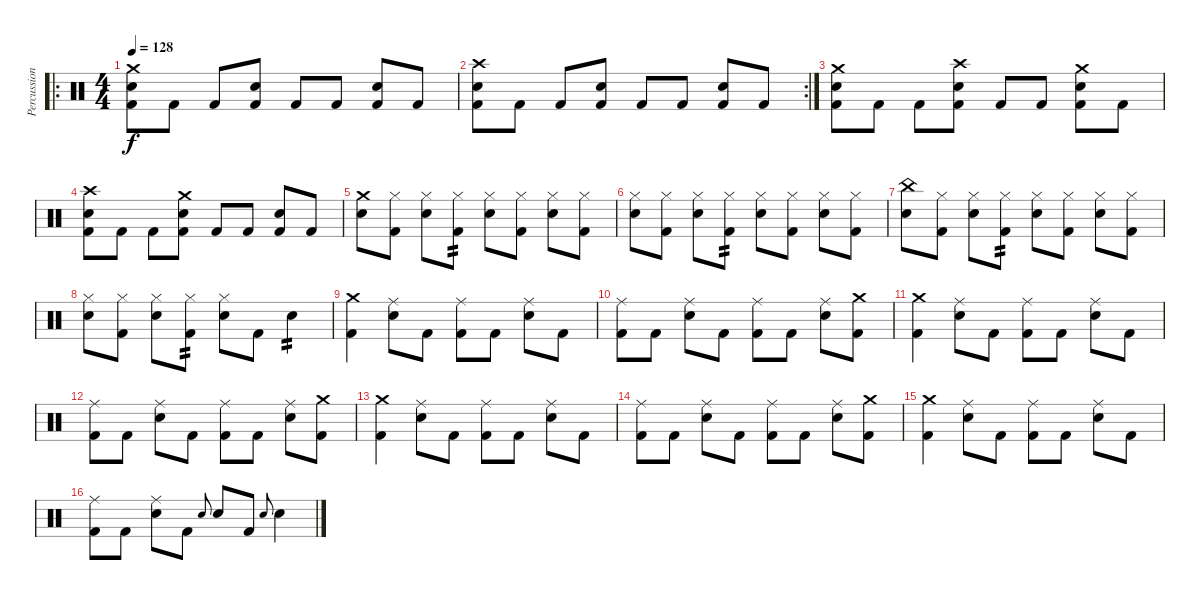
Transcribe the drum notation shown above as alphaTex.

\track ("Percussion" "Percussion") {instrument percussion}
\staff {score}
\articulation defaults
\ro
\ts (4 4)
\tempo 128
\clef neutral
\ks c
("Crash medium (hit)" "Snare (hit) 2" "Kick (hit) 2").8{dy f} "Kick (hit) 2".8 "Kick (hit) 2".8 ("Snare (hit) 2" "Kick (hit) 2").8 "Kick (hit) 2".8 "Kick (hit) 2".8 ("Snare (hit) 2" "Kick (hit) 2").8 "Kick (hit) 2".8 |
\rc 2
("Crash high (hit)" "Snare (hit) 2" "Kick (hit) 2").8 "Kick (hit) 2".8 "Kick (hit) 2".8 ("Snare (hit) 2" "Kick (hit) 2").8 "Kick (hit) 2".8 "Kick (hit) 2".8 ("Snare (hit) 2" "Kick (hit) 2").8 "Kick (hit) 2".8 |
("Crash medium (hit)" "Snare (hit) 2" "Kick (hit) 2").8 "Kick (hit) 2".8 "Kick (hit) 2".8 ("Crash high (hit)" "Snare (hit) 2" "Kick (hit) 2").8 "Kick (hit) 2".8 "Kick (hit) 2".8 ("Crash medium (hit)" "Snare (hit) 2" "Kick (hit) 2").8 "Kick (hit) 2".8 |
("Crash high (hit)" "Snare (hit) 2" "Kick (hit) 2").8 "Kick (hit) 2".8 "Kick (hit) 2".8 ("Crash medium (hit)" "Snare (hit) 2" "Kick (hit) 2").8 "Kick (hit) 2".8 "Kick (hit) 2".8 ("Snare (hit) 2" "Kick (hit) 2").8 "Kick (hit) 2".8 |
("Crash medium (hit)" "Snare (hit) 2").8 ("Hi-Hat (closed)" "Kick (hit) 2").8 ("Hi-Hat (closed)" "Snare (hit) 2").8 ("Hi-Hat (closed)" "Kick (hit) 2").8{tp 2} ("Hi-Hat (closed)" "Snare (hit) 2").8 ("Hi-Hat (closed)" "Kick (hit) 2").8 ("Hi-Hat (closed)" "Snare (hit) 2").8 ("Hi-Hat (closed)" "Kick (hit) 2").8 |
("Hi-Hat (closed)" "Snare (hit) 2").8 ("Hi-Hat (closed)" "Kick (hit) 2").8 ("Hi-Hat (closed)" "Snare (hit) 2").8 ("Hi-Hat (closed)" "Kick (hit) 2").8{tp 2} ("Hi-Hat (closed)" "Snare (hit) 2").8 ("Hi-Hat (closed)" "Kick (hit) 2").8 ("Hi-Hat (closed)" "Snare (hit) 2").8 ("Hi-Hat (closed)" "Kick (hit) 2").8 |
("China (hit)" "Snare (hit) 2").8 ("Hi-Hat (closed)" "Kick (hit) 2").8 ("Hi-Hat (closed)" "Snare (hit) 2").8 ("Hi-Hat (closed)" "Kick (hit) 2").8{tp 2} ("Hi-Hat (closed)" "Snare (hit) 2").8 ("Hi-Hat (closed)" "Kick (hit) 2").8 ("Hi-Hat (closed)" "Snare (hit) 2").8 ("Hi-Hat (closed)" "Kick (hit) 2").8 |
("Hi-Hat (closed)" "Snare (hit) 2").8 ("Hi-Hat (closed)" "Kick (hit) 2").8 ("Hi-Hat (closed)" "Snare (hit) 2").8 ("Hi-Hat (closed)" "Kick (hit) 2").8{tp 2} ("Hi-Hat (closed)" "Snare (hit) 2").8 "Kick (hit) 2".8 "Snare (hit) 2".4{tp 2} |
("Crash medium (hit)" "Kick (hit) 2").4 ("Ride (middle)" "Snare (hit) 2").8 "Kick (hit) 2".8 ("Ride (middle)" "Kick (hit) 2").8 "Kick (hit) 2".8 ("Ride (middle)" "Snare (hit) 2").8 "Kick (hit) 2".8 |
("Ride (middle)" "Kick (hit) 2").8 "Kick (hit) 2".8 ("Ride (middle)" "Snare (hit) 2").8 "Kick (hit) 2".8 ("Ride (middle)" "Kick (hit) 2").8 "Kick (hit) 2".8 ("Ride (middle)" "Snare (hit) 2").8 ("Crash medium (hit)" "Kick (hit) 2").8 |
("Crash medium (hit)" "Kick (hit) 2").4 ("Ride (middle)" "Snare (hit) 2").8 "Kick (hit) 2".8 ("Ride (middle)" "Kick (hit) 2").8 "Kick (hit) 2".8 ("Ride (middle)" "Snare (hit) 2").8 "Kick (hit) 2".8 |
("Ride (middle)" "Kick (hit) 2").8 "Kick (hit) 2".8 ("Ride (middle)" "Snare (hit) 2").8 "Kick (hit) 2".8 ("Ride (middle)" "Kick (hit) 2").8 "Kick (hit) 2".8 ("Ride (middle)" "Snare (hit) 2").8 ("Crash medium (hit)" "Kick (hit) 2").8 |
("Crash medium (hit)" "Kick (hit) 2").4 ("Ride (middle)" "Snare (hit) 2").8 "Kick (hit) 2".8 ("Ride (middle)" "Kick (hit) 2").8 "Kick (hit) 2".8 ("Ride (middle)" "Snare (hit) 2").8 "Kick (hit) 2".8 |
("Ride (middle)" "Kick (hit) 2").8 "Kick (hit) 2".8 ("Ride (middle)" "Snare (hit) 2").8 "Kick (hit) 2".8 ("Ride (middle)" "Kick (hit) 2").8 "Kick (hit) 2".8 ("Ride (middle)" "Snare (hit) 2").8 ("Crash medium (hit)" "Kick (hit) 2").8 |
("Crash medium (hit)" "Kick (hit) 2").4 ("Ride (middle)" "Snare (hit) 2").8 "Kick (hit) 2".8 ("Ride (middle)" "Kick (hit) 2").8 "Kick (hit) 2".8 ("Ride (middle)" "Snare (hit) 2").8 "Kick (hit) 2".8 |
("Ride (middle)" "Kick (hit) 2").8 "Kick (hit) 2".8 ("Ride (middle)" "Snare (hit) 2").8 "Kick (hit) 2".8 "Snare (hit) 2".8{gr onbeat} "Snare (hit) 2".8 "Kick (hit) 2".8 "Snare (hit) 2".8{gr onbeat} "Snare (hit) 2".4
